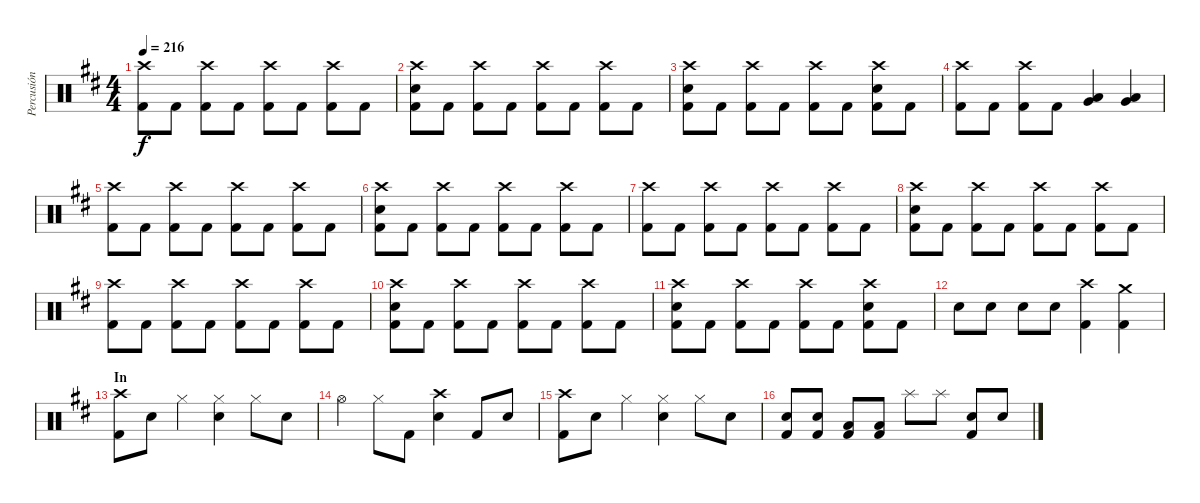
\track ("Percusión" "Percusión") {instrument percussion}
\staff {score}
\articulation defaults
\ts (4 4)
\tempo 216
\clef neutral
\ks d
("Crash high (hit)" "Kick (hit) 2").8{dy f} "Kick (hit) 2".8 ("Crash high (hit)" "Kick (hit) 2").8 "Kick (hit) 2".8 ("Crash high (hit)" "Kick (hit) 2").8 "Kick (hit) 2".8 ("Crash high (hit)" "Kick (hit) 2").8 "Kick (hit) 2".8 |
("Crash high (hit)" "Electric Snare (hit)" "Kick (hit) 2").8 "Kick (hit) 2".8 ("Crash high (hit)" "Kick (hit) 2").8 "Kick (hit) 2".8 ("Crash high (hit)" "Kick (hit) 2").8 "Kick (hit) 2".8 ("Crash high (hit)" "Kick (hit) 2").8 "Kick (hit) 2".8 |
("Crash high (hit)" "Electric Snare (hit)" "Kick (hit) 2").8 "Kick (hit) 2".8 ("Crash high (hit)" "Kick (hit) 2").8 "Kick (hit) 2".8 ("Crash high (hit)" "Kick (hit) 2").8 "Kick (hit) 2".8 ("Crash high (hit)" "Electric Snare (hit)" "Kick (hit) 2").8 "Kick (hit) 2".8 |
("Crash high (hit)" "Kick (hit) 2").8 "Kick (hit) 2".8 ("Crash high (hit)" "Kick (hit) 2").8 "Kick (hit) 2".8 ("Low Tom (hit)" "Very Low Tom (hit)").4 ("Low Tom (hit)" "Very Low Tom (hit)").4 |
("Crash high (hit)" "Kick (hit) 2").8 "Kick (hit) 2".8 ("Crash high (hit)" "Kick (hit) 2").8 "Kick (hit) 2".8 ("Crash high (hit)" "Kick (hit) 2").8 "Kick (hit) 2".8 ("Crash high (hit)" "Kick (hit) 2").8 "Kick (hit) 2".8 |
("Crash high (hit)" "Electric Snare (hit)" "Kick (hit) 2").8 "Kick (hit) 2".8 ("Crash high (hit)" "Kick (hit) 2").8 "Kick (hit) 2".8 ("Crash high (hit)" "Kick (hit) 2").8 "Kick (hit) 2".8 ("Crash high (hit)" "Kick (hit) 2").8 "Kick (hit) 2".8 |
("Crash high (hit)" "Kick (hit) 2").8 "Kick (hit) 2".8 ("Crash high (hit)" "Kick (hit) 2").8 "Kick (hit) 2".8 ("Crash high (hit)" "Kick (hit) 2").8 "Kick (hit) 2".8 ("Crash high (hit)" "Kick (hit) 2").8 "Kick (hit) 2".8 |
("Crash high (hit)" "Electric Snare (hit)" "Kick (hit) 2").8 "Kick (hit) 2".8 ("Crash high (hit)" "Kick (hit) 2").8 "Kick (hit) 2".8 ("Crash high (hit)" "Kick (hit) 2").8 "Kick (hit) 2".8 ("Crash high (hit)" "Kick (hit) 2").8 "Kick (hit) 2".8 |
("Crash high (hit)" "Kick (hit) 2").8 "Kick (hit) 2".8 ("Crash high (hit)" "Kick (hit) 2").8 "Kick (hit) 2".8 ("Crash high (hit)" "Kick (hit) 2").8 "Kick (hit) 2".8 ("Crash high (hit)" "Kick (hit) 2").8 "Kick (hit) 2".8 |
("Crash high (hit)" "Electric Snare (hit)" "Kick (hit) 2").8 "Kick (hit) 2".8 ("Crash high (hit)" "Kick (hit) 2").8 "Kick (hit) 2".8 ("Crash high (hit)" "Kick (hit) 2").8 "Kick (hit) 2".8 ("Crash high (hit)" "Kick (hit) 2").8 "Kick (hit) 2".8 |
("Crash high (hit)" "Electric Snare (hit)" "Kick (hit) 2").8 "Kick (hit) 2".8 ("Crash high (hit)" "Kick (hit) 2").8 "Kick (hit) 2".8 ("Crash high (hit)" "Kick (hit) 2").8 "Kick (hit) 2".8 ("Crash high (hit)" "Electric Snare (hit)" "Kick (hit) 2").8 "Kick (hit) 2".8 |
"Electric Snare (hit)".8 "Electric Snare (hit)".8 "Electric Snare (hit)".8 "Electric Snare (hit)".8 ("Crash high (hit)" "Kick (hit) 2").4 ("Crash medium (hit)" "Kick (hit) 2").4 |
\section ("" "In")
("Crash high (hit)" "Kick (hit) 2").8 "Electric Snare (hit)".8 "Hi-Hat (closed)".4 ("Hi-Hat (closed)" "Electric Snare (hit)").4 "Hi-Hat (closed)".8 "Electric Snare (hit)".8 |
"Hi-Hat (open)".4 "Hi-Hat (closed)".8 "Kick (hit) 2".8 ("Crash high (hit)" "Electric Snare (hit)").4 "Kick (hit) 2".8 "Electric Snare (hit)".8 |
("Crash high (hit)" "Kick (hit) 2").8 "Electric Snare (hit)".8 "Hi-Hat (closed)".4 ("Hi-Hat (closed)" "Electric Snare (hit)").4 "Hi-Hat (closed)".8 "Electric Snare (hit)".8 |
("Electric Snare (hit)" "Kick (hit) 2").8 ("Electric Snare (hit)" "Kick (hit) 2").8 ("Low Tom (hit)" "Kick (hit) 2").8 ("Low Tom (hit)" "Kick (hit) 2").8 "Splash (hit)".8 "Splash (hit)".8 ("Electric Snare (hit)" "Kick (hit) 2").8 "Electric Snare (hit)".8
